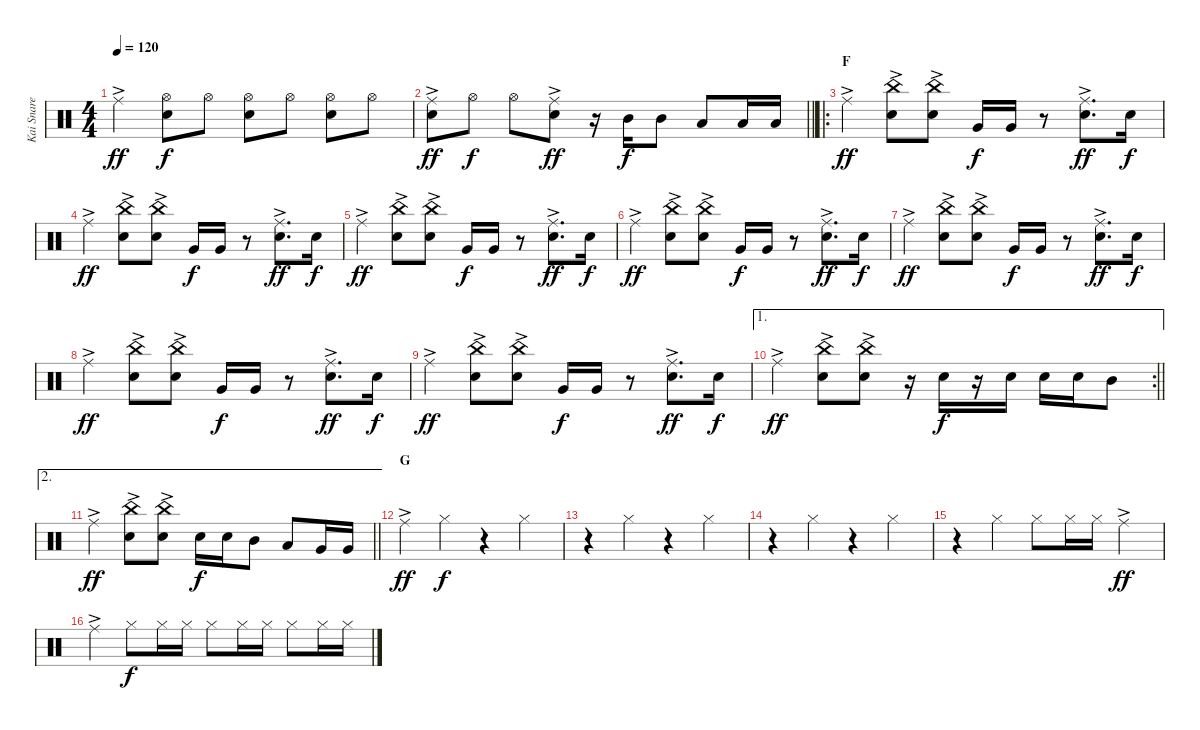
\track ("Kai Snare" "Kai Snare") {instrument percussion}
\staff {score}
\articulation defaults
\ts (4 4)
\tempo 120
\clef neutral
\ks c "Ride (middle)"{ac}.4{dy ff}
("Hi-Hat (open)" "Snare (hit) 2").8{dy f} "Hi-Hat (open)".8 ("Hi-Hat (open)" "Snare (hit) 2").8 "Hi-Hat (open)".8 ("Hi-Hat (open)" "Snare (hit) 2").8 "Hi-Hat (open)".8 |
\barLineRight lightlight
("Ride (middle)"{ac} "Snare (hit) 2").8{dy ff} "Hi-Hat (open)".8{dy f} "Hi-Hat (open)".8 ("Ride (middle)"{ac} "Snare (hit) 2").8{dy ff} r.16 "Mid Tom (hit)".16{dy f} "Mid Tom (hit)".8 "Low Tom (hit)".8 "Low Tom (hit)".16 "Low Tom (hit)".16 |
\ro
\section ("" "F")
"Ride (middle)"{ac}.4{dy ff} ("China (hit)"{ac} "Snare (hit) 2").8 ("China (hit)"{ac} "Snare (hit) 2").8 "Very Low Tom (hit)".16{dy f} "Very Low Tom (hit)".16 r.8 ("Ride (middle)"{ac} "Snare (hit) 2").8{d dy ff} "Snare (hit) 2".16{dy f} |
"Ride (middle)"{ac}.4{dy ff} ("China (hit)"{ac} "Snare (hit) 2").8 ("China (hit)"{ac} "Snare (hit) 2").8 "Very Low Tom (hit)".16{dy f} "Very Low Tom (hit)".16 r.8 ("Ride (middle)"{ac} "Snare (hit) 2").8{d dy ff} "Snare (hit) 2".16{dy f} |
"Ride (middle)"{ac}.4{dy ff} ("China (hit)"{ac} "Snare (hit) 2").8 ("China (hit)"{ac} "Snare (hit) 2").8 "Very Low Tom (hit)".16{dy f} "Very Low Tom (hit)".16 r.8 ("Ride (middle)"{ac} "Snare (hit) 2").8{d dy ff} "Snare (hit) 2".16{dy f} |
"Ride (middle)"{ac}.4{dy ff} ("China (hit)"{ac} "Snare (hit) 2").8 ("China (hit)"{ac} "Snare (hit) 2").8 "Very Low Tom (hit)".16{dy f} "Very Low Tom (hit)".16 r.8 ("Ride (middle)"{ac} "Snare (hit) 2").8{d dy ff} "Snare (hit) 2".16{dy f} |
"Ride (middle)"{ac}.4{dy ff} ("China (hit)"{ac} "Snare (hit) 2").8 ("China (hit)"{ac} "Snare (hit) 2").8 "Very Low Tom (hit)".16{dy f} "Very Low Tom (hit)".16 r.8 ("Ride (middle)"{ac} "Snare (hit) 2").8{d dy ff} "Snare (hit) 2".16{dy f} |
"Ride (middle)"{ac}.4{dy ff} ("China (hit)"{ac} "Snare (hit) 2").8 ("China (hit)"{ac} "Snare (hit) 2").8 "Very Low Tom (hit)".16{dy f} "Very Low Tom (hit)".16 r.8 ("Ride (middle)"{ac} "Snare (hit) 2").8{d dy ff} "Snare (hit) 2".16{dy f} |
"Ride (middle)"{ac}.4{dy ff} ("China (hit)"{ac} "Snare (hit) 2").8 ("China (hit)"{ac} "Snare (hit) 2").8 "Very Low Tom (hit)".16{dy f} "Very Low Tom (hit)".16 r.8 ("Ride (middle)"{ac} "Snare (hit) 2").8{d dy ff} "Snare (hit) 2".16{dy f} |
\ae 1
\rc 2
\barLineRight lightlight "Ride (middle)"{ac}.4{dy ff}
("China (hit)"{ac} "Snare (hit) 2").8 ("China (hit)"{ac} "Snare (hit) 2").8 r.16 "Snare (hit) 2".16{dy f} r.16 "Snare (hit) 2".16 "Snare (hit) 2".16 "Snare (hit) 2".16 "Mid Tom (hit)".8 |
\ae 2
\barLineRight lightlight "Ride (middle)"{ac}.4{dy ff}
("China (hit)"{ac} "Snare (hit) 2").8 ("China (hit)"{ac} "Snare (hit) 2").8 "Snare (hit) 2".16{dy f} "Snare (hit) 2".16 "Mid Tom (hit)".8 "Low Tom (hit)".8 "Very Low Tom (hit)".16 "Very Low Tom (hit)".16 |
\section ("" "G")
"Ride (middle)"{ac}.4{dy ff} "Hi-Hat (closed)".4{dy f} r.4 "Hi-Hat (closed)".4 |
r.4 "Hi-Hat (closed)".4 r.4 "Hi-Hat (closed)".4 |
r.4 "Hi-Hat (closed)".4 r.4 "Hi-Hat (closed)".4 |
r.4 "Hi-Hat (closed)".4 "Hi-Hat (closed)".8 "Hi-Hat (closed)".16 "Hi-Hat (closed)".16 "Ride (middle)"{ac}.4{dy ff} |
"Ride (middle)"{ac}.4 "Hi-Hat (closed)".8{dy f} "Hi-Hat (closed)".16 "Hi-Hat (closed)".16 "Hi-Hat (closed)".8 "Hi-Hat (closed)".16 "Hi-Hat (closed)".16 "Hi-Hat (closed)".8 "Hi-Hat (closed)".16 "Hi-Hat (closed)".16
